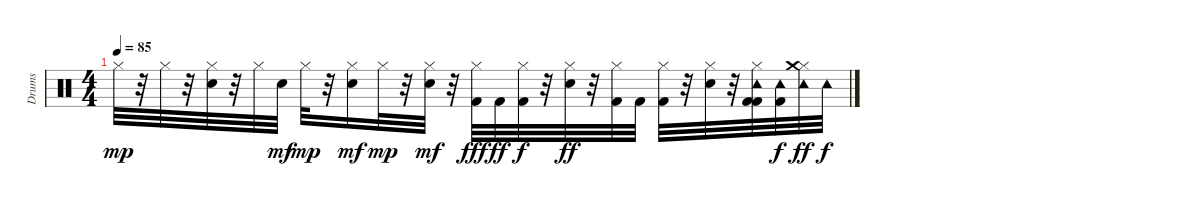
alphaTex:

\track ("Drums" "Drums") {instrument percussion}
\staff {score}
\articulation defaults
\ts (4 4)
\tempo 85
\clef neutral
\ks c "Hi-Hat (closed)".32{dy mp}
r.32 "Hi-Hat (closed)".32 r.32 ("Hi-Hat (closed)" "Electric Snare (hit)").32 r.32 "Hi-Hat (closed)".32 "Electric Snare (hit)".32{dy mf} "Hi-Hat (closed)".32{dy mp} r.32 ("Electric Snare (hit)" "Hi-Hat (closed)").16{dy mf} "Hi-Hat (closed)".32{dy mp} r.32 ("Electric Snare (hit)" "Hi-Hat (closed)").32{dy mf} r.32 ("Hi-Hat (closed)" "Kick (hit) 2").32{dy fff} "Kick (hit) 2".32{dy ff} ("Hi-Hat (closed)" "Kick (hit) 2").32{dy f} r.32 ("Hi-Hat (closed)" "Electric Snare (hit)").32{dy ff} r.32 ("Hi-Hat (closed)" "Kick (hit) 2").32 "Kick (hit) 2".32 ("Hi-Hat (closed)" "Kick (hit) 2").32 r.32 ("Hi-Hat (closed)" "Electric Snare (hit)").32 r.32 ("Hi-Hat (closed)" "Kick (hit) 2" "Kick (hit) 2" "Tambourine (hit)").32 ("Kick (hit) 2" "Tambourine (hit)").32{dy f} ("Hi-Hat (closed)" "Tambourine (hit)" "Crash medium (hit)").32{dy ff} "Tambourine (hit)".32{dy f}
